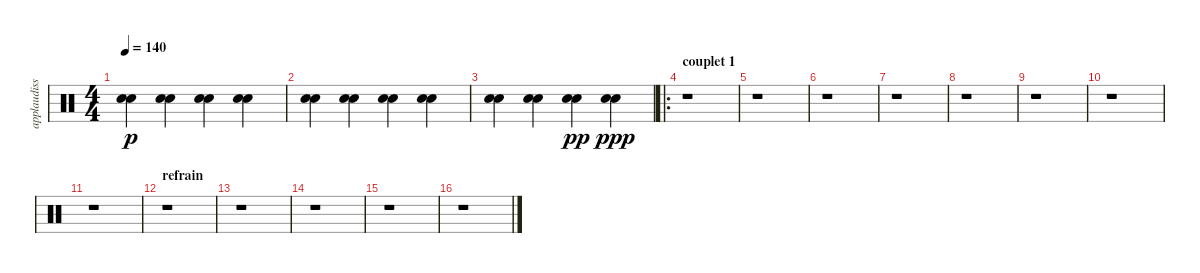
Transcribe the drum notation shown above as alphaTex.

\track ("applaudissements" "applaudiss") {instrument percussion}
\staff {score}
\articulation defaults
\ts (4 4)
\tempo 140
\clef neutral
\ks c
("Snare (hit) 2" "Hand Clap (hit)").4{dy p} ("Snare (hit) 2" "Hand Clap (hit)").4 ("Snare (hit) 2" "Hand Clap (hit)").4 ("Snare (hit) 2" "Hand Clap (hit)").4 |
("Snare (hit) 2" "Hand Clap (hit)").4 ("Snare (hit) 2" "Hand Clap (hit)").4 ("Snare (hit) 2" "Hand Clap (hit)").4 ("Snare (hit) 2" "Hand Clap (hit)").4 |
("Hand Clap (hit)" "Snare (hit) 2").4 ("Hand Clap (hit)" "Snare (hit) 2").4 ("Hand Clap (hit)" "Snare (hit) 2").4{dy pp} ("Hand Clap (hit)" "Snare (hit) 2").4{dy ppp} |
\ro
\section ("" "couplet 1")
r.1 |
r.1 |
r.1 |
r.1 |
r.1 |
r.1 |
r.1 |
r.1 |
\section ("" "refrain")
r.1 |
r.1 |
r.1 |
r.1 |
r.1
